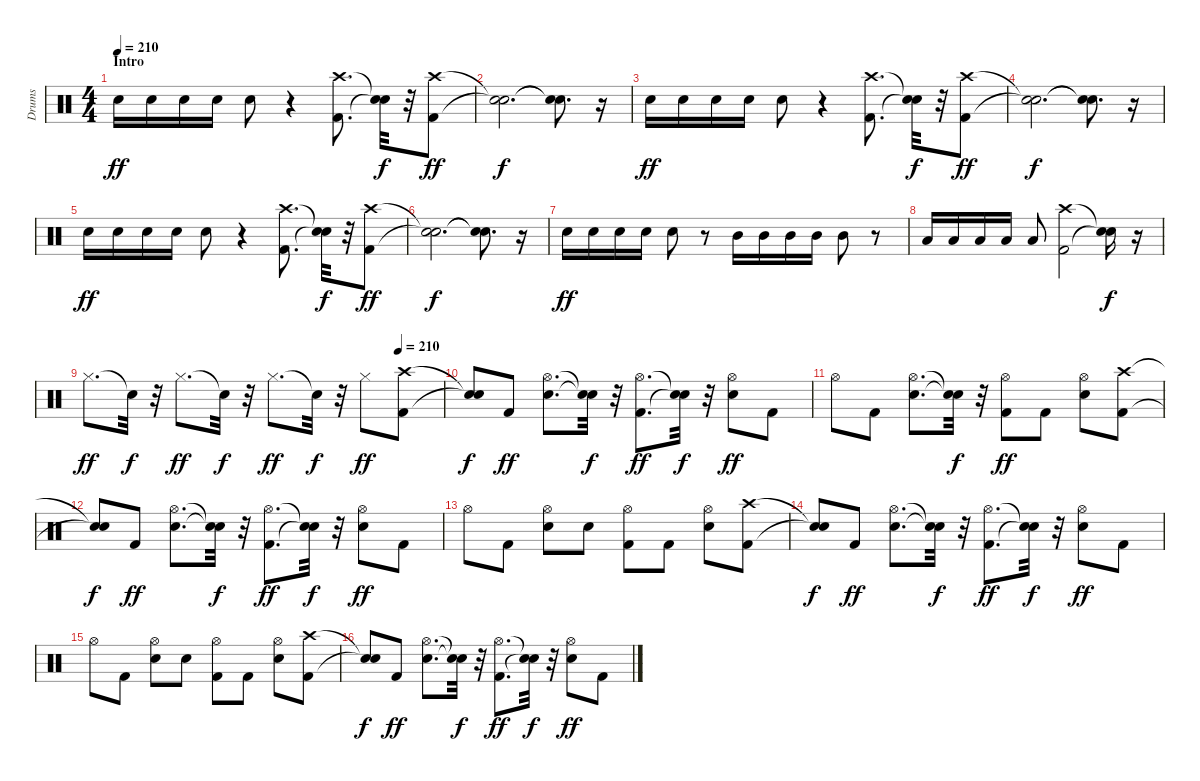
\track ("Drums" "Drums") {instrument percussion}
\staff {score}
\articulation defaults
\ts (4 4)
\section ("" "Intro")
\tempo 210
\tempo 185
\tempo 210
\clef neutral
\ks c "Snare (hit) 2".16{dy ff} "Snare (hit) 2".16 "Snare (hit) 2".16 "Snare (hit) 2".16 "Snare (hit) 2".8
r.4 ("Kick (hit) 2" "Crash high (hit)").8{d} ("Snare (hit)"{t} "Snare (hit)"{t}).32{dy f} r.32 ("Kick (hit) 2" "Crash high (hit)").8{dy ff} |
("Snare (hit)"{t} "Snare (hit)"{t}).2{d dy f} ("Snare (hit)"{t} "Snare (hit)"{t}).8{d} r.16 |
"Snare (hit) 2".16{dy ff} "Snare (hit) 2".16 "Snare (hit) 2".16 "Snare (hit) 2".16 "Snare (hit) 2".8 r.4 ("Kick (hit) 2" "Crash high (hit)").8{d} ("Snare (hit)"{t} "Snare (hit)"{t}).32{dy f} r.32 ("Kick (hit) 2" "Crash high (hit)").8{dy ff} |
("Snare (hit)"{t} "Snare (hit)"{t}).2{d dy f} ("Snare (hit)"{t} "Snare (hit)"{t}).8{d} r.16 |
"Snare (hit) 2".16{dy ff} "Snare (hit) 2".16 "Snare (hit) 2".16 "Snare (hit) 2".16 "Snare (hit) 2".8 r.4 ("Kick (hit) 2" "Crash high (hit)").8{d} ("Snare (hit)"{t} "Snare (hit)"{t}).32{dy f} r.32 ("Kick (hit) 2" "Crash high (hit)").8{dy ff} |
("Snare (hit)"{t} "Snare (hit)"{t}).2{d dy f} ("Snare (hit)"{t} "Snare (hit)"{t}).8{d} r.16 |
"Snare (hit) 2".16{dy ff} "Snare (hit) 2".16 "Snare (hit) 2".16 "Snare (hit) 2".16 "Snare (hit) 2".8 r.8 "Mid Tom (hit)".16 "Mid Tom (hit)".16 "Mid Tom (hit)".16 "Mid Tom (hit)".16 "Mid Tom (hit)".8 r.8 |
"Low Tom (hit)".16 "Low Tom (hit)".16 "Low Tom (hit)".16 "Low Tom (hit)".16 "Low Tom (hit)".8 ("Kick (hit) 2" "Crash high (hit)").2 ("Snare (hit)"{t} "Snare (hit)"{t}).16{dy f} r.16 |
\tempo (210 0.875)
"Hi-Hat (closed)".8{d dy ff} "Snare (hit)"{t}.32{dy f} r.32 "Hi-Hat (closed)".8{d dy ff} "Snare (hit)"{t}.32{dy f} r.32 "Hi-Hat (closed)".8{d dy ff} "Snare (hit)"{t}.32{dy f} r.32 "Hi-Hat (closed)".8{dy ff} ("Kick (hit) 2" "Crash high (hit)").8 |
("Snare (hit)"{t} "Snare (hit)"{t}).8{dy f} "Kick (hit) 2".8{dy ff} ("Snare (hit) 2" "Hi-Hat (open)").8{d} ("Snare (hit)"{t} "Snare (hit)"{t}).32{dy f} r.32 ("Kick (hit) 2" "Hi-Hat (open)").8{d dy ff} ("Snare (hit)"{t} "Snare (hit)"{t}).32{dy f} r.32 ("Snare (hit) 2" "Hi-Hat (open)").8{dy ff} "Kick (hit) 2".8 |
"Hi-Hat (open)".8 "Kick (hit) 2".8 ("Snare (hit) 2" "Hi-Hat (open)").8{d} ("Snare (hit)"{t} "Snare (hit)"{t}).32{dy f} r.32 ("Kick (hit) 2" "Hi-Hat (open)").8{dy ff} "Kick (hit) 2".8 ("Snare (hit) 2" "Hi-Hat (open)").8 ("Kick (hit) 2" "Crash high (hit)").8 |
("Snare (hit)"{t} "Snare (hit)"{t}).8{dy f} "Kick (hit) 2".8{dy ff} ("Snare (hit) 2" "Hi-Hat (open)").8{d} ("Snare (hit)"{t} "Snare (hit)"{t}).32{dy f} r.32 ("Kick (hit) 2" "Hi-Hat (open)").8{d dy ff} ("Snare (hit)"{t} "Snare (hit)"{t}).32{dy f} r.32 ("Snare (hit) 2" "Hi-Hat (open)").8{dy ff} "Kick (hit) 2".8 |
"Hi-Hat (open)".8 "Kick (hit) 2".8 ("Snare (hit) 2" "Hi-Hat (open)").8 "Snare (hit) 2".8 ("Kick (hit) 2" "Hi-Hat (open)").8 "Kick (hit) 2".8 ("Snare (hit) 2" "Hi-Hat (open)").8 ("Kick (hit) 2" "Crash high (hit)").8 |
("Snare (hit)"{t} "Snare (hit)"{t}).8{dy f} "Kick (hit) 2".8{dy ff} ("Snare (hit) 2" "Hi-Hat (open)").8{d} ("Snare (hit)"{t} "Snare (hit)"{t}).32{dy f} r.32 ("Kick (hit) 2" "Hi-Hat (open)").8{d dy ff} ("Snare (hit)"{t} "Snare (hit)"{t}).32{dy f} r.32 ("Snare (hit) 2" "Hi-Hat (open)").8{dy ff} "Kick (hit) 2".8 |
"Hi-Hat (open)".8 "Kick (hit) 2".8 ("Snare (hit) 2" "Hi-Hat (open)").8 "Snare (hit) 2".8 ("Kick (hit) 2" "Hi-Hat (open)").8 "Kick (hit) 2".8 ("Snare (hit) 2" "Hi-Hat (open)").8 ("Kick (hit) 2" "Crash high (hit)").8 |
("Snare (hit)"{t} "Snare (hit)"{t}).8{dy f} "Kick (hit) 2".8{dy ff} ("Snare (hit) 2" "Hi-Hat (open)").8{d} ("Snare (hit)"{t} "Snare (hit)"{t}).32{dy f} r.32 ("Kick (hit) 2" "Hi-Hat (open)").8{d dy ff} ("Snare (hit)"{t} "Snare (hit)"{t}).32{dy f} r.32 ("Snare (hit) 2" "Hi-Hat (open)").8{dy ff} "Kick (hit) 2".8
